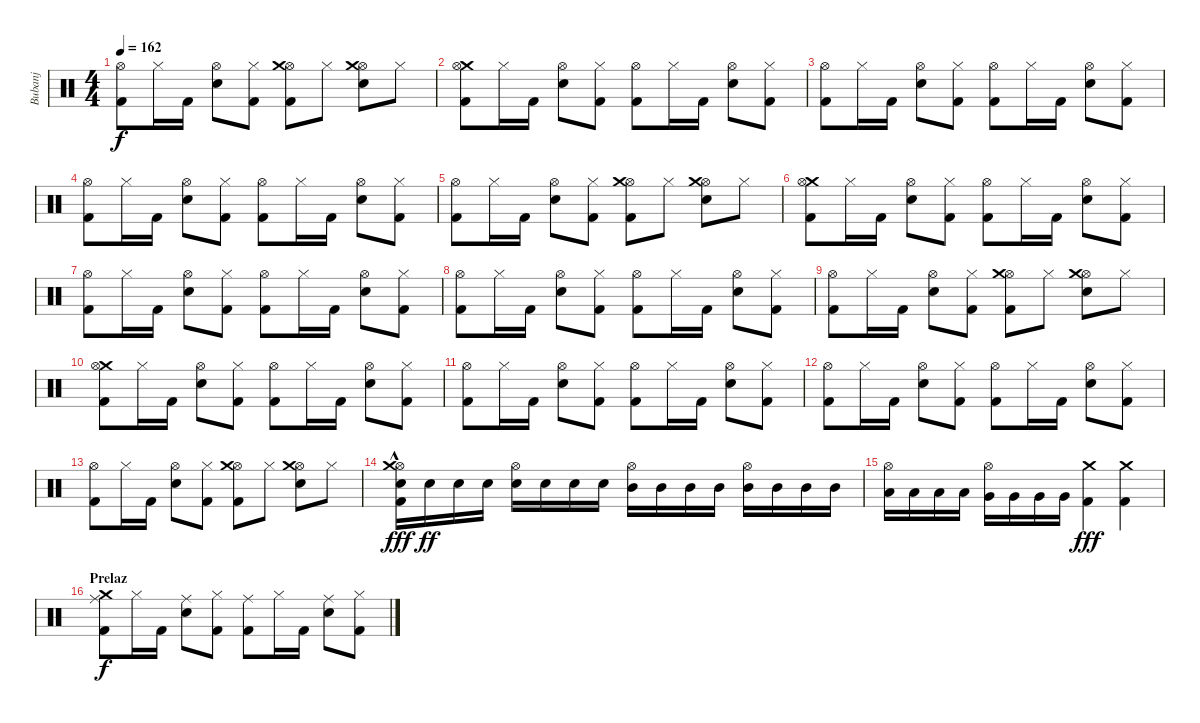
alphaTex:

\track ("Bubanj" "Bubanj") {instrument percussion}
\staff {score}
\articulation defaults
\ts (4 4)
\tempo 162
\clef neutral
\ks c
("Hi-Hat (open)" "Kick (hit) 2").8{dy f} "Hi-Hat (closed)".16 "Kick (hit) 2".16 ("Hi-Hat (open)" "Snare (hit) 2").8 ("Hi-Hat (closed)" "Kick (hit) 2").8 ("Hi-Hat (open)" "Kick (hit) 2" "Crash medium (hit)").8 "Hi-Hat (closed)".8 ("Hi-Hat (open)" "Snare (hit) 2" "Crash medium (hit)").8 "Hi-Hat (closed)".8 |
("Crash medium (hit)" "Kick (hit) 2" "Hi-Hat (open)").8 "Hi-Hat (closed)".16 "Kick (hit) 2".16 ("Hi-Hat (open)" "Snare (hit) 2").8 ("Hi-Hat (closed)" "Kick (hit) 2").8 ("Hi-Hat (open)" "Kick (hit) 2").8 "Hi-Hat (closed)".16 "Kick (hit) 2".16 ("Hi-Hat (open)" "Snare (hit) 2").8 ("Hi-Hat (closed)" "Kick (hit) 2").8 |
("Hi-Hat (open)" "Kick (hit) 2").8 "Hi-Hat (closed)".16 "Kick (hit) 2".16 ("Hi-Hat (open)" "Snare (hit) 2").8 ("Hi-Hat (closed)" "Kick (hit) 2").8 ("Hi-Hat (open)" "Kick (hit) 2").8 "Hi-Hat (closed)".16 "Kick (hit) 2".16 ("Hi-Hat (open)" "Snare (hit) 2").8 ("Hi-Hat (closed)" "Kick (hit) 2").8 |
("Hi-Hat (open)" "Kick (hit) 2").8 "Hi-Hat (closed)".16 "Kick (hit) 2".16 ("Hi-Hat (open)" "Snare (hit) 2").8 ("Hi-Hat (closed)" "Kick (hit) 2").8 ("Hi-Hat (open)" "Kick (hit) 2").8 "Hi-Hat (closed)".16 "Kick (hit) 2".16 ("Hi-Hat (open)" "Snare (hit) 2").8 ("Hi-Hat (closed)" "Kick (hit) 2").8 |
("Hi-Hat (open)" "Kick (hit) 2").8 "Hi-Hat (closed)".16 "Kick (hit) 2".16 ("Hi-Hat (open)" "Snare (hit) 2").8 ("Hi-Hat (closed)" "Kick (hit) 2").8 ("Hi-Hat (open)" "Kick (hit) 2" "Crash medium (hit)").8 "Hi-Hat (closed)".8 ("Hi-Hat (open)" "Snare (hit) 2" "Crash medium (hit)").8 "Hi-Hat (closed)".8 |
("Crash medium (hit)" "Kick (hit) 2" "Hi-Hat (open)").8 "Hi-Hat (closed)".16 "Kick (hit) 2".16 ("Hi-Hat (open)" "Snare (hit) 2").8 ("Hi-Hat (closed)" "Kick (hit) 2").8 ("Hi-Hat (open)" "Kick (hit) 2").8 "Hi-Hat (closed)".16 "Kick (hit) 2".16 ("Hi-Hat (open)" "Snare (hit) 2").8 ("Hi-Hat (closed)" "Kick (hit) 2").8 |
("Hi-Hat (open)" "Kick (hit) 2").8 "Hi-Hat (closed)".16 "Kick (hit) 2".16 ("Hi-Hat (open)" "Snare (hit) 2").8 ("Hi-Hat (closed)" "Kick (hit) 2").8 ("Hi-Hat (open)" "Kick (hit) 2").8 "Hi-Hat (closed)".16 "Kick (hit) 2".16 ("Hi-Hat (open)" "Snare (hit) 2").8 ("Hi-Hat (closed)" "Kick (hit) 2").8 |
("Hi-Hat (open)" "Kick (hit) 2").8 "Hi-Hat (closed)".16 "Kick (hit) 2".16 ("Hi-Hat (open)" "Snare (hit) 2").8 ("Hi-Hat (closed)" "Kick (hit) 2").8 ("Hi-Hat (open)" "Kick (hit) 2").8 "Hi-Hat (closed)".16 "Kick (hit) 2".16 ("Hi-Hat (open)" "Snare (hit) 2").8 ("Hi-Hat (closed)" "Kick (hit) 2").8 |
("Hi-Hat (open)" "Kick (hit) 2").8 "Hi-Hat (closed)".16 "Kick (hit) 2".16 ("Hi-Hat (open)" "Snare (hit) 2").8 ("Hi-Hat (closed)" "Kick (hit) 2").8 ("Hi-Hat (open)" "Kick (hit) 2" "Crash medium (hit)").8 "Hi-Hat (closed)".8 ("Hi-Hat (open)" "Snare (hit) 2" "Crash medium (hit)").8 "Hi-Hat (closed)".8 |
("Crash medium (hit)" "Kick (hit) 2" "Hi-Hat (open)").8 "Hi-Hat (closed)".16 "Kick (hit) 2".16 ("Hi-Hat (open)" "Snare (hit) 2").8 ("Hi-Hat (closed)" "Kick (hit) 2").8 ("Hi-Hat (open)" "Kick (hit) 2").8 "Hi-Hat (closed)".16 "Kick (hit) 2".16 ("Hi-Hat (open)" "Snare (hit) 2").8 ("Hi-Hat (closed)" "Kick (hit) 2").8 |
("Hi-Hat (open)" "Kick (hit) 2").8 "Hi-Hat (closed)".16 "Kick (hit) 2".16 ("Hi-Hat (open)" "Snare (hit) 2").8 ("Hi-Hat (closed)" "Kick (hit) 2").8 ("Hi-Hat (open)" "Kick (hit) 2").8 "Hi-Hat (closed)".16 "Kick (hit) 2".16 ("Hi-Hat (open)" "Snare (hit) 2").8 ("Hi-Hat (closed)" "Kick (hit) 2").8 |
("Hi-Hat (open)" "Kick (hit) 2").8 "Hi-Hat (closed)".16 "Kick (hit) 2".16 ("Hi-Hat (open)" "Snare (hit) 2").8 ("Hi-Hat (closed)" "Kick (hit) 2").8 ("Hi-Hat (open)" "Kick (hit) 2").8 "Hi-Hat (closed)".16 "Kick (hit) 2".16 ("Hi-Hat (open)" "Snare (hit) 2").8 ("Hi-Hat (closed)" "Kick (hit) 2").8 |
("Hi-Hat (open)" "Kick (hit) 2").8 "Hi-Hat (closed)".16 "Kick (hit) 2".16 ("Hi-Hat (open)" "Snare (hit) 2").8 ("Hi-Hat (closed)" "Kick (hit) 2").8 ("Hi-Hat (open)" "Kick (hit) 2" "Crash medium (hit)").8 "Hi-Hat (closed)".8 ("Hi-Hat (open)" "Snare (hit) 2" "Crash medium (hit)").8 "Hi-Hat (closed)".8 |
("Snare (hit) 2" "Hi-Hat (open)" "Crash medium (hit)" "Kick (hit) 2"{hac}).16{dy fff} "Snare (hit) 2".16{dy ff} "Snare (hit) 2".16 "Snare (hit) 2".16 ("Snare (hit) 2" "Hi-Hat (open)").16 "Snare (hit) 2".16 "Snare (hit) 2".16 "Snare (hit) 2".16 ("Mid Tom (hit)" "Hi-Hat (open)").16 "Mid Tom (hit)".16 "Mid Tom (hit)".16 "Mid Tom (hit)".16 ("Mid Tom (hit)" "Hi-Hat (open)").16 "Mid Tom (hit)".16 "Mid Tom (hit)".16 "Mid Tom (hit)".16 |
("Low Tom (hit)" "Hi-Hat (open)").16 "Low Tom (hit)".16 "Low Tom (hit)".16 "Low Tom (hit)".16 ("Very Low Tom (hit)" "Hi-Hat (open)").16 "Very Low Tom (hit)".16 "Very Low Tom (hit)".16 "Very Low Tom (hit)".16 ("Kick (hit) 2" "Crash medium (hit)").4{dy fff} ("Kick (hit) 2" "Crash medium (hit)").4 |
\section ("" "Prelaz")
("Crash medium (hit)" "Kick (hit) 2" "Ride (middle)").8{dy f} "Hi-Hat (closed)".16 "Kick (hit) 2".16 ("Ride (middle)" "Snare (hit) 2").8 ("Hi-Hat (closed)" "Kick (hit) 2").8 ("Ride (middle)" "Kick (hit) 2").8 "Hi-Hat (closed)".16 "Kick (hit) 2".16 ("Ride (middle)" "Snare (hit) 2").8 ("Hi-Hat (closed)" "Kick (hit) 2").8
